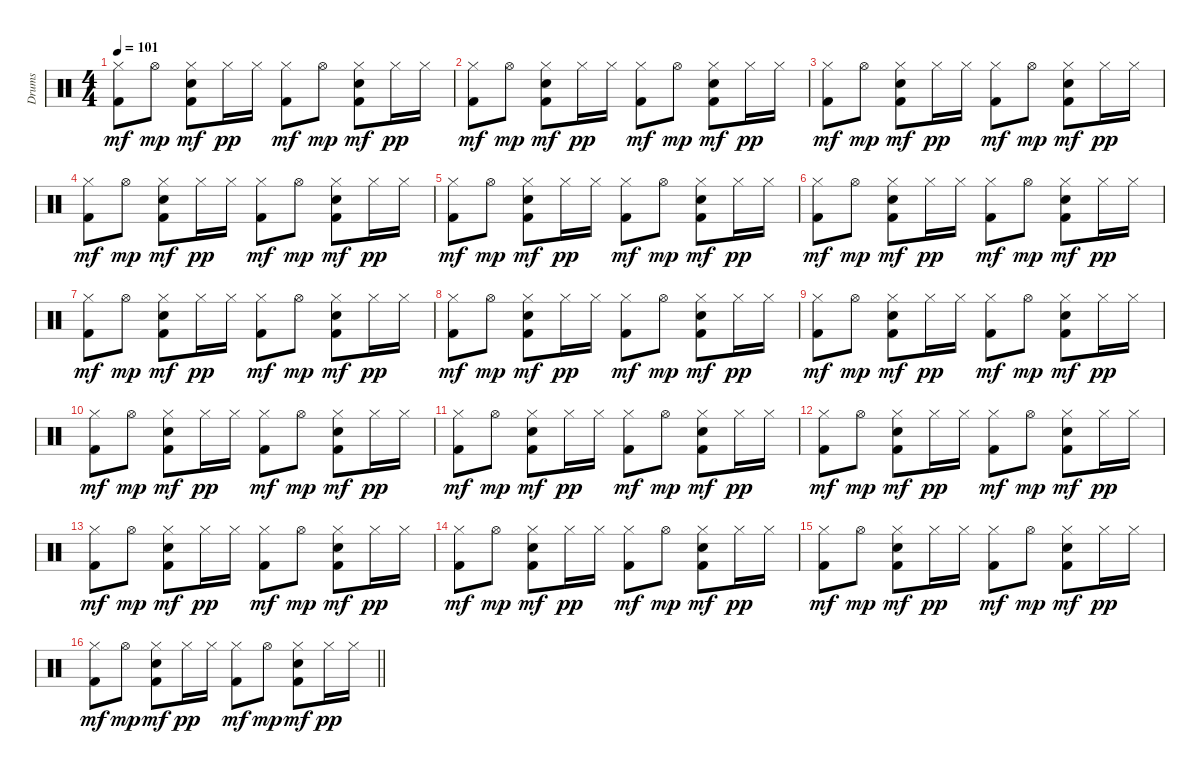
\track ("Drums" "Drums") {instrument percussion}
\staff {score}
\articulation defaults
\ts (4 4)
\tempo 101
\clef neutral
\ks c
("Hi-Hat (closed)" "Kick (hit) 2").8{dy mf} "Hi-Hat (open)".8{dy mp} ("Hi-Hat (closed)" "Snare (hit) 2" "Kick (hit) 2").8{dy mf} "Hi-Hat (closed)".16{dy pp} "Hi-Hat (closed)".16 ("Hi-Hat (closed)" "Kick (hit) 2").8{dy mf} "Hi-Hat (open)".8{dy mp} ("Hi-Hat (closed)" "Snare (hit) 2" "Kick (hit) 2").8{dy mf} "Hi-Hat (closed)".16{dy pp} "Hi-Hat (closed)".16 |
("Hi-Hat (closed)" "Kick (hit) 2").8{dy mf} "Hi-Hat (open)".8{dy mp} ("Hi-Hat (closed)" "Snare (hit) 2" "Kick (hit) 2").8{dy mf} "Hi-Hat (closed)".16{dy pp} "Hi-Hat (closed)".16 ("Hi-Hat (closed)" "Kick (hit) 2").8{dy mf} "Hi-Hat (open)".8{dy mp} ("Hi-Hat (closed)" "Snare (hit) 2" "Kick (hit) 2").8{dy mf} "Hi-Hat (closed)".16{dy pp} "Hi-Hat (closed)".16 |
("Hi-Hat (closed)" "Kick (hit) 2").8{dy mf} "Hi-Hat (open)".8{dy mp} ("Hi-Hat (closed)" "Snare (hit) 2" "Kick (hit) 2").8{dy mf} "Hi-Hat (closed)".16{dy pp} "Hi-Hat (closed)".16 ("Hi-Hat (closed)" "Kick (hit) 2").8{dy mf} "Hi-Hat (open)".8{dy mp} ("Hi-Hat (closed)" "Snare (hit) 2" "Kick (hit) 2").8{dy mf} "Hi-Hat (closed)".16{dy pp} "Hi-Hat (closed)".16 |
("Hi-Hat (closed)" "Kick (hit) 2").8{dy mf} "Hi-Hat (open)".8{dy mp} ("Hi-Hat (closed)" "Snare (hit) 2" "Kick (hit) 2").8{dy mf} "Hi-Hat (closed)".16{dy pp} "Hi-Hat (closed)".16 ("Hi-Hat (closed)" "Kick (hit) 2").8{dy mf} "Hi-Hat (open)".8{dy mp} ("Hi-Hat (closed)" "Snare (hit) 2" "Kick (hit) 2").8{dy mf} "Hi-Hat (closed)".16{dy pp} "Hi-Hat (closed)".16 |
("Hi-Hat (closed)" "Kick (hit) 2").8{dy mf} "Hi-Hat (open)".8{dy mp} ("Hi-Hat (closed)" "Snare (hit) 2" "Kick (hit) 2").8{dy mf} "Hi-Hat (closed)".16{dy pp} "Hi-Hat (closed)".16 ("Hi-Hat (closed)" "Kick (hit) 2").8{dy mf} "Hi-Hat (open)".8{dy mp} ("Hi-Hat (closed)" "Snare (hit) 2" "Kick (hit) 2").8{dy mf} "Hi-Hat (closed)".16{dy pp} "Hi-Hat (closed)".16 |
("Hi-Hat (closed)" "Kick (hit) 2").8{dy mf} "Hi-Hat (open)".8{dy mp} ("Hi-Hat (closed)" "Snare (hit) 2" "Kick (hit) 2").8{dy mf} "Hi-Hat (closed)".16{dy pp} "Hi-Hat (closed)".16 ("Hi-Hat (closed)" "Kick (hit) 2").8{dy mf} "Hi-Hat (open)".8{dy mp} ("Hi-Hat (closed)" "Snare (hit) 2" "Kick (hit) 2").8{dy mf} "Hi-Hat (closed)".16{dy pp} "Hi-Hat (closed)".16 |
("Hi-Hat (closed)" "Kick (hit) 2").8{dy mf} "Hi-Hat (open)".8{dy mp} ("Hi-Hat (closed)" "Snare (hit) 2" "Kick (hit) 2").8{dy mf} "Hi-Hat (closed)".16{dy pp} "Hi-Hat (closed)".16 ("Hi-Hat (closed)" "Kick (hit) 2").8{dy mf} "Hi-Hat (open)".8{dy mp} ("Hi-Hat (closed)" "Snare (hit) 2" "Kick (hit) 2").8{dy mf} "Hi-Hat (closed)".16{dy pp} "Hi-Hat (closed)".16 |
("Hi-Hat (closed)" "Kick (hit) 2").8{dy mf} "Hi-Hat (open)".8{dy mp} ("Hi-Hat (closed)" "Snare (hit) 2" "Kick (hit) 2").8{dy mf} "Hi-Hat (closed)".16{dy pp} "Hi-Hat (closed)".16 ("Hi-Hat (closed)" "Kick (hit) 2").8{dy mf} "Hi-Hat (open)".8{dy mp} ("Hi-Hat (closed)" "Snare (hit) 2" "Kick (hit) 2").8{dy mf} "Hi-Hat (closed)".16{dy pp} "Hi-Hat (closed)".16 |
("Hi-Hat (closed)" "Kick (hit) 2").8{dy mf} "Hi-Hat (open)".8{dy mp} ("Hi-Hat (closed)" "Snare (hit) 2" "Kick (hit) 2").8{dy mf} "Hi-Hat (closed)".16{dy pp} "Hi-Hat (closed)".16 ("Hi-Hat (closed)" "Kick (hit) 2").8{dy mf} "Hi-Hat (open)".8{dy mp} ("Hi-Hat (closed)" "Snare (hit) 2" "Kick (hit) 2").8{dy mf} "Hi-Hat (closed)".16{dy pp} "Hi-Hat (closed)".16 |
("Hi-Hat (closed)" "Kick (hit) 2").8{dy mf} "Hi-Hat (open)".8{dy mp} ("Hi-Hat (closed)" "Snare (hit) 2" "Kick (hit) 2").8{dy mf} "Hi-Hat (closed)".16{dy pp} "Hi-Hat (closed)".16 ("Hi-Hat (closed)" "Kick (hit) 2").8{dy mf} "Hi-Hat (open)".8{dy mp} ("Hi-Hat (closed)" "Snare (hit) 2" "Kick (hit) 2").8{dy mf} "Hi-Hat (closed)".16{dy pp} "Hi-Hat (closed)".16 |
("Hi-Hat (closed)" "Kick (hit) 2").8{dy mf} "Hi-Hat (open)".8{dy mp} ("Hi-Hat (closed)" "Snare (hit) 2" "Kick (hit) 2").8{dy mf} "Hi-Hat (closed)".16{dy pp} "Hi-Hat (closed)".16 ("Hi-Hat (closed)" "Kick (hit) 2").8{dy mf} "Hi-Hat (open)".8{dy mp} ("Hi-Hat (closed)" "Snare (hit) 2" "Kick (hit) 2").8{dy mf} "Hi-Hat (closed)".16{dy pp} "Hi-Hat (closed)".16 |
("Hi-Hat (closed)" "Kick (hit) 2").8{dy mf} "Hi-Hat (open)".8{dy mp} ("Hi-Hat (closed)" "Snare (hit) 2" "Kick (hit) 2").8{dy mf} "Hi-Hat (closed)".16{dy pp} "Hi-Hat (closed)".16 ("Hi-Hat (closed)" "Kick (hit) 2").8{dy mf} "Hi-Hat (open)".8{dy mp} ("Hi-Hat (closed)" "Snare (hit) 2" "Kick (hit) 2").8{dy mf} "Hi-Hat (closed)".16{dy pp} "Hi-Hat (closed)".16 |
("Hi-Hat (closed)" "Kick (hit) 2").8{dy mf} "Hi-Hat (open)".8{dy mp} ("Hi-Hat (closed)" "Snare (hit) 2" "Kick (hit) 2").8{dy mf} "Hi-Hat (closed)".16{dy pp} "Hi-Hat (closed)".16 ("Hi-Hat (closed)" "Kick (hit) 2").8{dy mf} "Hi-Hat (open)".8{dy mp} ("Hi-Hat (closed)" "Snare (hit) 2" "Kick (hit) 2").8{dy mf} "Hi-Hat (closed)".16{dy pp} "Hi-Hat (closed)".16 |
("Hi-Hat (closed)" "Kick (hit) 2").8{dy mf} "Hi-Hat (open)".8{dy mp} ("Hi-Hat (closed)" "Snare (hit) 2" "Kick (hit) 2").8{dy mf} "Hi-Hat (closed)".16{dy pp} "Hi-Hat (closed)".16 ("Hi-Hat (closed)" "Kick (hit) 2").8{dy mf} "Hi-Hat (open)".8{dy mp} ("Hi-Hat (closed)" "Snare (hit) 2" "Kick (hit) 2").8{dy mf} "Hi-Hat (closed)".16{dy pp} "Hi-Hat (closed)".16 |
("Hi-Hat (closed)" "Kick (hit) 2").8{dy mf} "Hi-Hat (open)".8{dy mp} ("Hi-Hat (closed)" "Snare (hit) 2" "Kick (hit) 2").8{dy mf} "Hi-Hat (closed)".16{dy pp} "Hi-Hat (closed)".16 ("Hi-Hat (closed)" "Kick (hit) 2").8{dy mf} "Hi-Hat (open)".8{dy mp} ("Hi-Hat (closed)" "Snare (hit) 2" "Kick (hit) 2").8{dy mf} "Hi-Hat (closed)".16{dy pp} "Hi-Hat (closed)".16 |
\barLineRight lightlight
("Hi-Hat (closed)" "Kick (hit) 2").8{dy mf} "Hi-Hat (open)".8{dy mp} ("Hi-Hat (closed)" "Snare (hit) 2" "Kick (hit) 2").8{dy mf} "Hi-Hat (closed)".16{dy pp} "Hi-Hat (closed)".16 ("Hi-Hat (closed)" "Kick (hit) 2").8{dy mf} "Hi-Hat (open)".8{dy mp} ("Hi-Hat (closed)" "Snare (hit) 2" "Kick (hit) 2").8{dy mf} "Hi-Hat (closed)".16{dy pp} "Hi-Hat (closed)".16
